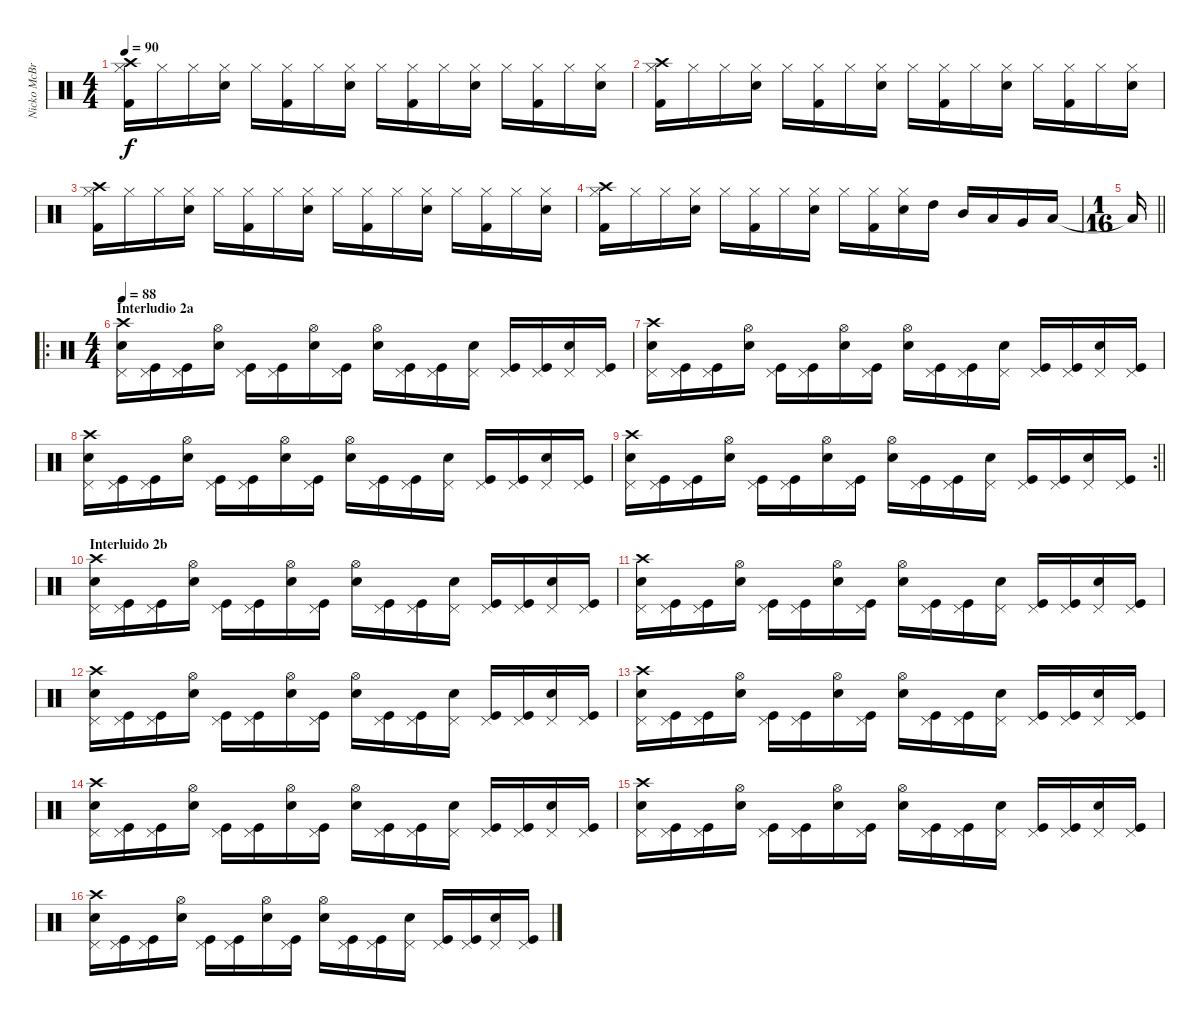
\track ("Nicko McBrain" "Nicko McBr") {instrument percussion}
\staff {score}
\articulation defaults
\ts (4 4)
\tempo 90
\clef neutral
\ks c
("Kick (hit) 2" "Hi-Hat (closed)" "Crash high (hit)").16{dy f} "Hi-Hat (closed)".16 "Hi-Hat (closed)".16 ("Snare (hit) 2" "Hi-Hat (closed)").16 "Hi-Hat (closed)".16 ("Kick (hit) 2" "Hi-Hat (closed)").16 "Hi-Hat (closed)".16 ("Snare (hit) 2" "Hi-Hat (closed)").16 "Hi-Hat (closed)".16 ("Kick (hit) 2" "Hi-Hat (closed)").16 "Hi-Hat (closed)".16 ("Snare (hit) 2" "Hi-Hat (closed)").16 "Hi-Hat (closed)".16 ("Kick (hit) 2" "Hi-Hat (closed)").16 "Hi-Hat (closed)".16 ("Snare (hit) 2" "Hi-Hat (closed)").16 |
("Kick (hit) 2" "Hi-Hat (closed)" "Crash high (hit)").16 "Hi-Hat (closed)".16 "Hi-Hat (closed)".16 ("Snare (hit) 2" "Hi-Hat (closed)").16 "Hi-Hat (closed)".16 ("Kick (hit) 2" "Hi-Hat (closed)").16 "Hi-Hat (closed)".16 ("Snare (hit) 2" "Hi-Hat (closed)").16 "Hi-Hat (closed)".16 ("Kick (hit) 2" "Hi-Hat (closed)").16 "Hi-Hat (closed)".16 ("Snare (hit) 2" "Hi-Hat (closed)").16 "Hi-Hat (closed)".16 ("Kick (hit) 2" "Hi-Hat (closed)").16 "Hi-Hat (closed)".16 ("Snare (hit) 2" "Hi-Hat (closed)").16 |
("Kick (hit) 2" "Hi-Hat (closed)" "Crash high (hit)").16 "Hi-Hat (closed)".16 "Hi-Hat (closed)".16 ("Snare (hit) 2" "Hi-Hat (closed)").16 "Hi-Hat (closed)".16 ("Kick (hit) 2" "Hi-Hat (closed)").16 "Hi-Hat (closed)".16 ("Snare (hit) 2" "Hi-Hat (closed)").16 "Hi-Hat (closed)".16 ("Kick (hit) 2" "Hi-Hat (closed)").16 "Hi-Hat (closed)".16 ("Snare (hit) 2" "Hi-Hat (closed)").16 "Hi-Hat (closed)".16 ("Kick (hit) 2" "Hi-Hat (closed)").16 "Hi-Hat (closed)".16 ("Snare (hit) 2" "Hi-Hat (closed)").16 |
("Kick (hit) 2" "Hi-Hat (closed)" "Crash high (hit)").16 "Hi-Hat (closed)".16 "Hi-Hat (closed)".16 ("Snare (hit) 2" "Hi-Hat (closed)").16 "Hi-Hat (closed)".16 ("Kick (hit) 2" "Hi-Hat (closed)").16 "Hi-Hat (closed)".16 ("Snare (hit) 2" "Hi-Hat (closed)").16 "Hi-Hat (closed)".16 ("Kick (hit) 2" "Hi-Hat (closed)").16 ("Snare (hit) 2" "Hi-Hat (closed)").16 "High Tom (hit)".16 "Mid Tom (hit)".16 "Low Tom (hit)".16 "Very Low Tom (hit)".16 "Low Floor Tom (hit)".16 |
\ts (1 16)
\barLineRight lightlight "Low Floor Tom (hit)"{t}.16
|
\ro
\ts (4 4)
\section ("" "Interludio 2a")
\tempo 88
("Snare (hit) 2" "Pedal Hi-Hat (hit)" "Crash high (hit)").16 ("Kick (hit)" "Pedal Hi-Hat (hit)").16 ("Kick (hit)" "Pedal Hi-Hat (hit)").16 ("Snare (hit) 2" "Hi-Hat (open)").16 ("Kick (hit)" "Pedal Hi-Hat (hit)").16 ("Kick (hit)" "Pedal Hi-Hat (hit)").16 ("Snare (hit) 2" "Hi-Hat (open)").16 ("Kick (hit)" "Pedal Hi-Hat (hit)").16 ("Snare (hit) 2" "Hi-Hat (open)").16 ("Kick (hit)" "Pedal Hi-Hat (hit)").16 ("Kick (hit)" "Pedal Hi-Hat (hit)").16 ("Snare (hit) 2" "Pedal Hi-Hat (hit)").16 ("Kick (hit)" "Pedal Hi-Hat (hit)").16 ("Kick (hit)" "Pedal Hi-Hat (hit)").16 ("Snare (hit) 2" "Pedal Hi-Hat (hit)").16 ("Kick (hit)" "Pedal Hi-Hat (hit)").16 |
("Snare (hit) 2" "Pedal Hi-Hat (hit)" "Crash high (hit)").16 ("Kick (hit)" "Pedal Hi-Hat (hit)").16 ("Kick (hit)" "Pedal Hi-Hat (hit)").16 ("Snare (hit) 2" "Hi-Hat (open)").16 ("Kick (hit)" "Pedal Hi-Hat (hit)").16 ("Kick (hit)" "Pedal Hi-Hat (hit)").16 ("Snare (hit) 2" "Hi-Hat (open)").16 ("Kick (hit)" "Pedal Hi-Hat (hit)").16 ("Snare (hit) 2" "Hi-Hat (open)").16 ("Kick (hit)" "Pedal Hi-Hat (hit)").16 ("Kick (hit)" "Pedal Hi-Hat (hit)").16 ("Snare (hit) 2" "Pedal Hi-Hat (hit)").16 ("Kick (hit)" "Pedal Hi-Hat (hit)").16 ("Kick (hit)" "Pedal Hi-Hat (hit)").16 ("Snare (hit) 2" "Pedal Hi-Hat (hit)").16 ("Kick (hit)" "Pedal Hi-Hat (hit)").16 |
("Snare (hit) 2" "Pedal Hi-Hat (hit)" "Crash high (hit)").16 ("Kick (hit)" "Pedal Hi-Hat (hit)").16 ("Kick (hit)" "Pedal Hi-Hat (hit)").16 ("Snare (hit) 2" "Hi-Hat (open)").16 ("Kick (hit)" "Pedal Hi-Hat (hit)").16 ("Kick (hit)" "Pedal Hi-Hat (hit)").16 ("Snare (hit) 2" "Hi-Hat (open)").16 ("Kick (hit)" "Pedal Hi-Hat (hit)").16 ("Snare (hit) 2" "Hi-Hat (open)").16 ("Kick (hit)" "Pedal Hi-Hat (hit)").16 ("Kick (hit)" "Pedal Hi-Hat (hit)").16 ("Snare (hit) 2" "Pedal Hi-Hat (hit)").16 ("Kick (hit)" "Pedal Hi-Hat (hit)").16 ("Kick (hit)" "Pedal Hi-Hat (hit)").16 ("Snare (hit) 2" "Pedal Hi-Hat (hit)").16 ("Kick (hit)" "Pedal Hi-Hat (hit)").16 |
\rc 2
\barLineRight lightlight
("Snare (hit) 2" "Pedal Hi-Hat (hit)" "Crash high (hit)").16 ("Kick (hit)" "Pedal Hi-Hat (hit)").16 ("Kick (hit)" "Pedal Hi-Hat (hit)").16 ("Snare (hit) 2" "Hi-Hat (open)").16 ("Kick (hit)" "Pedal Hi-Hat (hit)").16 ("Kick (hit)" "Pedal Hi-Hat (hit)").16 ("Snare (hit) 2" "Hi-Hat (open)").16 ("Kick (hit)" "Pedal Hi-Hat (hit)").16 ("Snare (hit) 2" "Hi-Hat (open)").16 ("Kick (hit)" "Pedal Hi-Hat (hit)").16 ("Kick (hit)" "Pedal Hi-Hat (hit)").16 ("Snare (hit) 2" "Pedal Hi-Hat (hit)").16 ("Kick (hit)" "Pedal Hi-Hat (hit)").16 ("Kick (hit)" "Pedal Hi-Hat (hit)").16 ("Snare (hit) 2" "Pedal Hi-Hat (hit)").16 ("Kick (hit)" "Pedal Hi-Hat (hit)").16 |
\section ("" "Interluido 2b")
("Snare (hit) 2" "Pedal Hi-Hat (hit)" "Crash high (hit)").16 ("Kick (hit)" "Pedal Hi-Hat (hit)").16 ("Kick (hit)" "Pedal Hi-Hat (hit)").16 ("Snare (hit) 2" "Hi-Hat (open)").16 ("Kick (hit)" "Pedal Hi-Hat (hit)").16 ("Kick (hit)" "Pedal Hi-Hat (hit)").16 ("Snare (hit) 2" "Hi-Hat (open)").16 ("Kick (hit)" "Pedal Hi-Hat (hit)").16 ("Snare (hit) 2" "Hi-Hat (open)").16 ("Kick (hit)" "Pedal Hi-Hat (hit)").16 ("Kick (hit)" "Pedal Hi-Hat (hit)").16 ("Snare (hit) 2" "Pedal Hi-Hat (hit)").16 ("Kick (hit)" "Pedal Hi-Hat (hit)").16 ("Kick (hit)" "Pedal Hi-Hat (hit)").16 ("Snare (hit) 2" "Pedal Hi-Hat (hit)").16 ("Kick (hit)" "Pedal Hi-Hat (hit)").16 |
("Snare (hit) 2" "Pedal Hi-Hat (hit)" "Crash high (hit)").16 ("Kick (hit)" "Pedal Hi-Hat (hit)").16 ("Kick (hit)" "Pedal Hi-Hat (hit)").16 ("Snare (hit) 2" "Hi-Hat (open)").16 ("Kick (hit)" "Pedal Hi-Hat (hit)").16 ("Kick (hit)" "Pedal Hi-Hat (hit)").16 ("Snare (hit) 2" "Hi-Hat (open)").16 ("Kick (hit)" "Pedal Hi-Hat (hit)").16 ("Snare (hit) 2" "Hi-Hat (open)").16 ("Kick (hit)" "Pedal Hi-Hat (hit)").16 ("Kick (hit)" "Pedal Hi-Hat (hit)").16 ("Snare (hit) 2" "Pedal Hi-Hat (hit)").16 ("Kick (hit)" "Pedal Hi-Hat (hit)").16 ("Kick (hit)" "Pedal Hi-Hat (hit)").16 ("Snare (hit) 2" "Pedal Hi-Hat (hit)").16 ("Kick (hit)" "Pedal Hi-Hat (hit)").16 |
("Snare (hit) 2" "Pedal Hi-Hat (hit)" "Crash high (hit)").16 ("Kick (hit)" "Pedal Hi-Hat (hit)").16 ("Kick (hit)" "Pedal Hi-Hat (hit)").16 ("Snare (hit) 2" "Hi-Hat (open)").16 ("Kick (hit)" "Pedal Hi-Hat (hit)").16 ("Kick (hit)" "Pedal Hi-Hat (hit)").16 ("Snare (hit) 2" "Hi-Hat (open)").16 ("Kick (hit)" "Pedal Hi-Hat (hit)").16 ("Snare (hit) 2" "Hi-Hat (open)").16 ("Kick (hit)" "Pedal Hi-Hat (hit)").16 ("Kick (hit)" "Pedal Hi-Hat (hit)").16 ("Snare (hit) 2" "Pedal Hi-Hat (hit)").16 ("Kick (hit)" "Pedal Hi-Hat (hit)").16 ("Kick (hit)" "Pedal Hi-Hat (hit)").16 ("Snare (hit) 2" "Pedal Hi-Hat (hit)").16 ("Kick (hit)" "Pedal Hi-Hat (hit)").16 |
("Snare (hit) 2" "Pedal Hi-Hat (hit)" "Crash high (hit)").16 ("Kick (hit)" "Pedal Hi-Hat (hit)").16 ("Kick (hit)" "Pedal Hi-Hat (hit)").16 ("Snare (hit) 2" "Hi-Hat (open)").16 ("Kick (hit)" "Pedal Hi-Hat (hit)").16 ("Kick (hit)" "Pedal Hi-Hat (hit)").16 ("Snare (hit) 2" "Hi-Hat (open)").16 ("Kick (hit)" "Pedal Hi-Hat (hit)").16 ("Snare (hit) 2" "Hi-Hat (open)").16 ("Kick (hit)" "Pedal Hi-Hat (hit)").16 ("Kick (hit)" "Pedal Hi-Hat (hit)").16 ("Snare (hit) 2" "Pedal Hi-Hat (hit)").16 ("Kick (hit)" "Pedal Hi-Hat (hit)").16 ("Kick (hit)" "Pedal Hi-Hat (hit)").16 ("Snare (hit) 2" "Pedal Hi-Hat (hit)").16 ("Kick (hit)" "Pedal Hi-Hat (hit)").16 |
("Snare (hit) 2" "Pedal Hi-Hat (hit)" "Crash high (hit)").16 ("Kick (hit)" "Pedal Hi-Hat (hit)").16 ("Kick (hit)" "Pedal Hi-Hat (hit)").16 ("Snare (hit) 2" "Hi-Hat (open)").16 ("Kick (hit)" "Pedal Hi-Hat (hit)").16 ("Kick (hit)" "Pedal Hi-Hat (hit)").16 ("Snare (hit) 2" "Hi-Hat (open)").16 ("Kick (hit)" "Pedal Hi-Hat (hit)").16 ("Snare (hit) 2" "Hi-Hat (open)").16 ("Kick (hit)" "Pedal Hi-Hat (hit)").16 ("Kick (hit)" "Pedal Hi-Hat (hit)").16 ("Snare (hit) 2" "Pedal Hi-Hat (hit)").16 ("Kick (hit)" "Pedal Hi-Hat (hit)").16 ("Kick (hit)" "Pedal Hi-Hat (hit)").16 ("Snare (hit) 2" "Pedal Hi-Hat (hit)").16 ("Kick (hit)" "Pedal Hi-Hat (hit)").16 |
("Snare (hit) 2" "Pedal Hi-Hat (hit)" "Crash high (hit)").16 ("Kick (hit)" "Pedal Hi-Hat (hit)").16 ("Kick (hit)" "Pedal Hi-Hat (hit)").16 ("Snare (hit) 2" "Hi-Hat (open)").16 ("Kick (hit)" "Pedal Hi-Hat (hit)").16 ("Kick (hit)" "Pedal Hi-Hat (hit)").16 ("Snare (hit) 2" "Hi-Hat (open)").16 ("Kick (hit)" "Pedal Hi-Hat (hit)").16 ("Snare (hit) 2" "Hi-Hat (open)").16 ("Kick (hit)" "Pedal Hi-Hat (hit)").16 ("Kick (hit)" "Pedal Hi-Hat (hit)").16 ("Snare (hit) 2" "Pedal Hi-Hat (hit)").16 ("Kick (hit)" "Pedal Hi-Hat (hit)").16 ("Kick (hit)" "Pedal Hi-Hat (hit)").16 ("Snare (hit) 2" "Pedal Hi-Hat (hit)").16 ("Kick (hit)" "Pedal Hi-Hat (hit)").16 |
("Snare (hit) 2" "Pedal Hi-Hat (hit)" "Crash high (hit)").16 ("Kick (hit)" "Pedal Hi-Hat (hit)").16 ("Kick (hit)" "Pedal Hi-Hat (hit)").16 ("Snare (hit) 2" "Hi-Hat (open)").16 ("Kick (hit)" "Pedal Hi-Hat (hit)").16 ("Kick (hit)" "Pedal Hi-Hat (hit)").16 ("Snare (hit) 2" "Hi-Hat (open)").16 ("Kick (hit)" "Pedal Hi-Hat (hit)").16 ("Snare (hit) 2" "Hi-Hat (open)").16 ("Kick (hit)" "Pedal Hi-Hat (hit)").16 ("Kick (hit)" "Pedal Hi-Hat (hit)").16 ("Snare (hit) 2" "Pedal Hi-Hat (hit)").16 ("Kick (hit)" "Pedal Hi-Hat (hit)").16 ("Kick (hit)" "Pedal Hi-Hat (hit)").16 ("Snare (hit) 2" "Pedal Hi-Hat (hit)").16 ("Kick (hit)" "Pedal Hi-Hat (hit)").16
